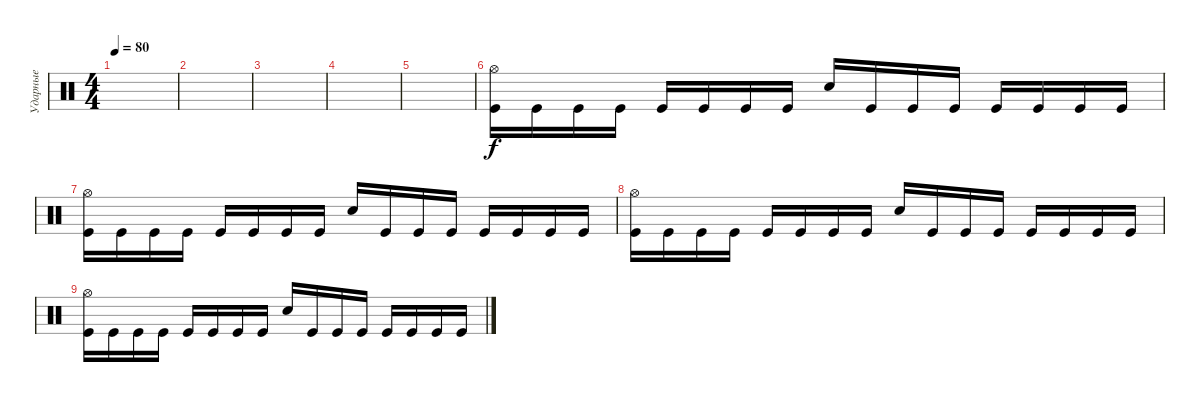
\track ("Ударные" "Ударные") {instrument percussion}
\staff {score}
\articulation defaults
\ts (4 4)
\tempo 80
\clef neutral
\ks c
|
|
|
|
|
("Hi-Hat (open)" "Kick (hit)").16 "Kick (hit)".16 "Kick (hit)".16 "Kick (hit)".16 "Kick (hit)".16 "Kick (hit)".16 "Kick (hit)".16 "Kick (hit)".16 "Electric Snare (hit)".16 "Kick (hit)".16 "Kick (hit)".16 "Kick (hit)".16 "Kick (hit)".16 "Kick (hit)".16 "Kick (hit)".16 "Kick (hit)".16 |
("Hi-Hat (open)" "Kick (hit)").16 "Kick (hit)".16 "Kick (hit)".16 "Kick (hit)".16 "Kick (hit)".16 "Kick (hit)".16 "Kick (hit)".16 "Kick (hit)".16 "Electric Snare (hit)".16 "Kick (hit)".16 "Kick (hit)".16 "Kick (hit)".16 "Kick (hit)".16 "Kick (hit)".16 "Kick (hit)".16 "Kick (hit)".16 |
("Hi-Hat (open)" "Kick (hit)").16 "Kick (hit)".16 "Kick (hit)".16 "Kick (hit)".16 "Kick (hit)".16 "Kick (hit)".16 "Kick (hit)".16 "Kick (hit)".16 "Electric Snare (hit)".16 "Kick (hit)".16 "Kick (hit)".16 "Kick (hit)".16 "Kick (hit)".16 "Kick (hit)".16 "Kick (hit)".16 "Kick (hit)".16 |
("Hi-Hat (open)" "Kick (hit)").16 "Kick (hit)".16 "Kick (hit)".16 "Kick (hit)".16 "Kick (hit)".16 "Kick (hit)".16 "Kick (hit)".16 "Kick (hit)".16 "Electric Snare (hit)".16 "Kick (hit)".16 "Kick (hit)".16 "Kick (hit)".16 "Kick (hit)".16 "Kick (hit)".16 "Kick (hit)".16 "Kick (hit)".16
